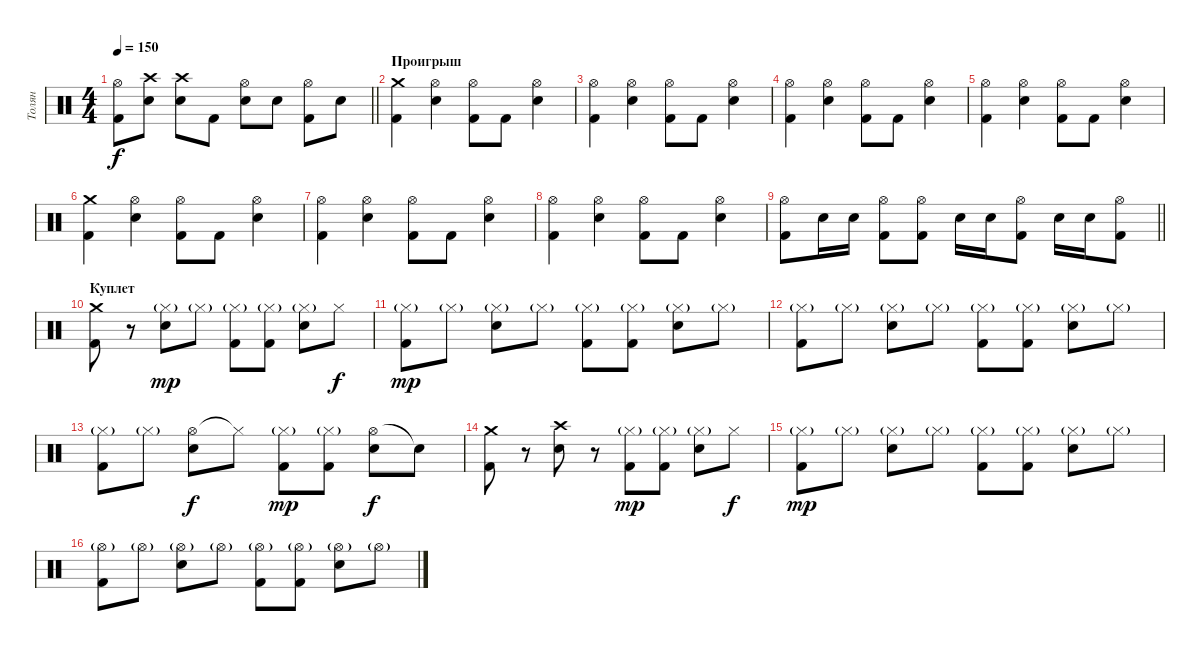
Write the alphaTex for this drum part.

\track ("Толян" "Толян") {instrument percussion}
\staff {score}
\articulation defaults
\ts (4 4)
\tempo 150
\clef neutral
\barLineRight lightlight
\ks c
("Kick (hit) 2" "Hi-Hat (open)").8{dy f} ("Electric Snare (hit)" "Crash high (hit)").8 ("Electric Snare (hit)" "Crash high (hit)").8 "Kick (hit) 2".8 ("Electric Snare (hit)" "Hi-Hat (open)").8 "Electric Snare (hit)".8 ("Kick (hit) 2" "Hi-Hat (open)").8 "Electric Snare (hit)".8 |
\section ("" "Проигрыш")
("Kick (hit) 2" "Crash medium (hit)").4 ("Electric Snare (hit)" "Hi-Hat (open)").4 ("Kick (hit) 2" "Hi-Hat (open)").8 "Kick (hit) 2".8 ("Electric Snare (hit)" "Hi-Hat (open)").4 |
("Kick (hit) 2" "Hi-Hat (open)").4 ("Electric Snare (hit)" "Hi-Hat (open)").4 ("Kick (hit) 2" "Hi-Hat (open)").8 "Kick (hit) 2".8 ("Electric Snare (hit)" "Hi-Hat (open)").4 |
("Kick (hit) 2" "Hi-Hat (open)").4 ("Electric Snare (hit)" "Hi-Hat (open)").4 ("Kick (hit) 2" "Hi-Hat (open)").8 "Kick (hit) 2".8 ("Electric Snare (hit)" "Hi-Hat (open)").4 |
("Kick (hit) 2" "Hi-Hat (open)").4 ("Electric Snare (hit)" "Hi-Hat (open)").4 ("Kick (hit) 2" "Hi-Hat (open)").8 "Kick (hit) 2".8 ("Electric Snare (hit)" "Hi-Hat (open)").4 |
("Kick (hit) 2" "Crash medium (hit)").4 ("Electric Snare (hit)" "Hi-Hat (open)").4 ("Kick (hit) 2" "Hi-Hat (open)").8 "Kick (hit) 2".8 ("Electric Snare (hit)" "Hi-Hat (open)").4 |
("Kick (hit) 2" "Hi-Hat (open)").4 ("Electric Snare (hit)" "Hi-Hat (open)").4 ("Kick (hit) 2" "Hi-Hat (open)").8 "Kick (hit) 2".8 ("Electric Snare (hit)" "Hi-Hat (open)").4 |
("Kick (hit) 2" "Hi-Hat (open)").4 ("Electric Snare (hit)" "Hi-Hat (open)").4 ("Kick (hit) 2" "Hi-Hat (open)").8 "Kick (hit) 2".8 ("Electric Snare (hit)" "Hi-Hat (open)").4 |
\barLineRight lightlight
("Kick (hit) 2" "Hi-Hat (open)").8 "Electric Snare (hit)".16 "Electric Snare (hit)".16 ("Kick (hit) 2" "Hi-Hat (open)").8 ("Kick (hit) 2" "Hi-Hat (open)").8 "Electric Snare (hit)".16 "Electric Snare (hit)".16 ("Kick (hit) 2" "Hi-Hat (open)").8 "Electric Snare (hit)".16 "Electric Snare (hit)".16 ("Kick (hit) 2" "Hi-Hat (open)").8 |
\section ("" "Куплет")
("Crash medium (hit)" "Kick (hit) 2").8 r.8 ("Hi-Hat (closed)"{g} "Electric Snare (hit)").8{dy mp} "Hi-Hat (closed)"{g}.8 ("Hi-Hat (closed)"{g} "Kick (hit) 2").8 ("Hi-Hat (closed)"{g} "Kick (hit) 2").8 ("Hi-Hat (closed)"{g} "Electric Snare (hit)").8 "Hi-Hat (closed)".8{dy f} |
("Hi-Hat (closed)"{g} "Kick (hit) 2").8{dy mp} "Hi-Hat (closed)"{g}.8 ("Hi-Hat (closed)"{g} "Electric Snare (hit)").8 "Hi-Hat (closed)"{g}.8 ("Hi-Hat (closed)"{g} "Kick (hit) 2").8 ("Hi-Hat (closed)"{g} "Kick (hit) 2").8 ("Hi-Hat (closed)"{g} "Electric Snare (hit)").8 "Hi-Hat (closed)"{g}.8 |
("Hi-Hat (closed)"{g} "Kick (hit) 2").8 "Hi-Hat (closed)"{g}.8 ("Hi-Hat (closed)"{g} "Electric Snare (hit)").8 "Hi-Hat (closed)"{g}.8 ("Hi-Hat (closed)"{g} "Kick (hit) 2").8 ("Hi-Hat (closed)"{g} "Kick (hit) 2").8 ("Hi-Hat (closed)"{g} "Electric Snare (hit)").8 "Hi-Hat (closed)"{g}.8 |
("Hi-Hat (closed)"{g} "Kick (hit) 2").8 "Hi-Hat (closed)"{g}.8 ("Hi-Hat (open)" "Electric Snare (hit)").8{dy f} "Hi-Hat (closed)"{t}.8 ("Hi-Hat (closed)"{g} "Kick (hit) 2").8{dy mp} ("Hi-Hat (closed)"{g} "Kick (hit) 2").8 ("Hi-Hat (open)" "Electric Snare (hit)").8{dy f} "Snare (hit)"{t}.8 |
("Crash medium (hit)" "Kick (hit) 2").8 r.8 ("Crash high (hit)" "Electric Snare (hit)").8 r.8 ("Hi-Hat (closed)"{g} "Kick (hit) 2").8{dy mp} ("Hi-Hat (closed)"{g} "Kick (hit) 2").8 ("Hi-Hat (closed)"{g} "Electric Snare (hit)").8 "Hi-Hat (closed)".8{dy f} |
("Hi-Hat (closed)"{g} "Kick (hit) 2").8{dy mp} "Hi-Hat (closed)"{g}.8 ("Hi-Hat (closed)"{g} "Electric Snare (hit)").8 "Hi-Hat (closed)"{g}.8 ("Hi-Hat (closed)"{g} "Kick (hit) 2").8 ("Hi-Hat (closed)"{g} "Kick (hit) 2").8 ("Hi-Hat (closed)"{g} "Electric Snare (hit)").8 "Hi-Hat (closed)"{g}.8 |
("Hi-Hat (open)"{g} "Kick (hit) 2").8 "Hi-Hat (open)"{g}.8 ("Hi-Hat (open)"{g} "Electric Snare (hit)").8 "Hi-Hat (open)"{g}.8 ("Hi-Hat (open)"{g} "Kick (hit) 2").8 ("Hi-Hat (open)"{g} "Kick (hit) 2").8 ("Hi-Hat (open)"{g} "Electric Snare (hit)").8 "Hi-Hat (open)"{g}.8
